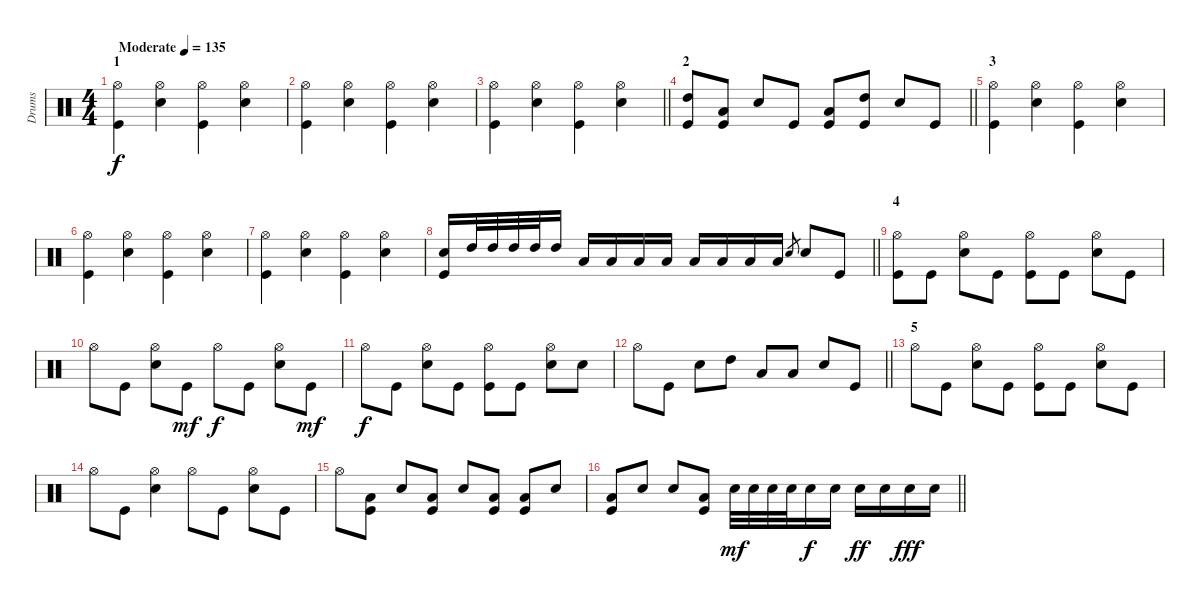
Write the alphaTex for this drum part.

\track ("Drums" "Drums") {instrument percussion}
\staff {score}
\articulation defaults
\ts (4 4)
\section ("" "1")
\tempo (135 "Moderate")
\clef neutral
\ks c
("Hi-Hat (open)" "Kick (hit)").4{dy f} ("Hi-Hat (open)" "Electric Snare (hit)").4 ("Hi-Hat (open)" "Kick (hit)").4 ("Hi-Hat (open)" "Electric Snare (hit)").4 |
("Hi-Hat (open)" "Kick (hit)").4 ("Hi-Hat (open)" "Electric Snare (hit)").4 ("Hi-Hat (open)" "Kick (hit)").4 ("Hi-Hat (open)" "Electric Snare (hit)").4 |
\barLineRight lightlight
("Hi-Hat (open)" "Kick (hit)").4 ("Hi-Hat (open)" "Electric Snare (hit)").4 ("Hi-Hat (open)" "Kick (hit)").4 ("Hi-Hat (open)" "Electric Snare (hit)").4 |
\section ("" "2")
\barLineRight lightlight
("High Tom (hit)" "Kick (hit)").8 ("Low Tom (hit)" "Kick (hit)").8 "Electric Snare (hit)".8 "Kick (hit)".8 ("Low Tom (hit)" "Kick (hit)").8 ("High Tom (hit)" "Kick (hit)").8 "Electric Snare (hit)".8 "Kick (hit)".8 |
\section ("" "3")
("Hi-Hat (open)" "Kick (hit)").4 ("Hi-Hat (open)" "Electric Snare (hit)").4 ("Hi-Hat (open)" "Kick (hit)").4 ("Hi-Hat (open)" "Electric Snare (hit)").4 |
("Hi-Hat (open)" "Kick (hit)").4 ("Hi-Hat (open)" "Electric Snare (hit)").4 ("Hi-Hat (open)" "Kick (hit)").4 ("Hi-Hat (open)" "Electric Snare (hit)").4 |
("Hi-Hat (open)" "Kick (hit)").4 ("Hi-Hat (open)" "Electric Snare (hit)").4 ("Hi-Hat (open)" "Kick (hit)").4 ("Hi-Hat (open)" "Electric Snare (hit)").4 |
\barLineRight lightlight
("Electric Snare (hit)" "Kick (hit)").16 "High Tom (hit)".32 "High Tom (hit)".32 "High Tom (hit)".32 "High Tom (hit)".32 "High Tom (hit)".16 "Low Tom (hit)".16 "Low Tom (hit)".16 "Low Tom (hit)".16 "Low Tom (hit)".16 "Low Floor Tom (hit)".16 "Low Floor Tom (hit)".16 "Low Floor Tom (hit)".16 "Low Floor Tom (hit)".16 "Electric Snare (hit)".8{gr} "Electric Snare (hit)".8 "Kick (hit)".8 |
\section ("" "4")
("Hi-Hat (open)" "Kick (hit)").8 "Kick (hit)".8 ("Hi-Hat (open)" "Electric Snare (hit)").8 "Kick (hit)".8 ("Hi-Hat (open)" "Kick (hit)").8 "Kick (hit)".8 ("Hi-Hat (open)" "Electric Snare (hit)").8 "Kick (hit)".8 |
"Hi-Hat (open)".8 "Kick (hit)".8 ("Hi-Hat (open)" "Electric Snare (hit)").8 "Kick (hit)".8{dy mf} "Hi-Hat (open)".8{dy f} "Kick (hit)".8 ("Hi-Hat (open)" "Electric Snare (hit)").8 "Kick (hit)".8{dy mf} |
"Hi-Hat (open)".8{dy f} "Kick (hit)".8 ("Hi-Hat (open)" "Electric Snare (hit)").8 "Kick (hit)".8 ("Hi-Hat (open)" "Kick (hit)").8 "Kick (hit)".8 ("Hi-Hat (open)" "Electric Snare (hit)").8 "Electric Snare (hit)".8 |
\barLineRight lightlight "Hi-Hat (open)".8 "Kick (hit)".8 "Electric Snare (hit)".8 "High Tom (hit)".8 "Low Tom (hit)".8 "Low Floor Tom (hit)".8 "Electric Snare (hit)".8 "Kick (hit)".8
|
\section ("" "5")
"Hi-Hat (open)".8 "Kick (hit)".8 ("Hi-Hat (open)" "Electric Snare (hit)").8 "Kick (hit)".8 ("Hi-Hat (open)" "Kick (hit)").8 "Kick (hit)".8 ("Hi-Hat (open)" "Electric Snare (hit)").8 "Kick (hit)".8 |
"Hi-Hat (open)".8 "Kick (hit)".8 ("Hi-Hat (open)" "Electric Snare (hit)").4 "Hi-Hat (open)".8 "Kick (hit)".8 ("Hi-Hat (open)" "Electric Snare (hit)").8 "Kick (hit)".8 |
"Hi-Hat (open)".8 ("Low Tom (hit)" "Kick (hit)").8 "Electric Snare (hit)".8 ("Low Tom (hit)" "Kick (hit)").8 "Electric Snare (hit)".8 ("Low Tom (hit)" "Kick (hit)").8 ("Low Tom (hit)" "Kick (hit)").8 "Electric Snare (hit)".8 |
\barLineRight lightlight
("Low Tom (hit)" "Kick (hit)").8 "Electric Snare (hit)".8 "Electric Snare (hit)".8 ("Low Tom (hit)" "Kick (hit)").8 "Electric Snare (hit)".32{dy mf} "Electric Snare (hit)".32 "Electric Snare (hit)".32 "Electric Snare (hit)".32 "Electric Snare (hit)".16{dy f} "Electric Snare (hit)".16 "Electric Snare (hit)".16{dy ff} "Electric Snare (hit)".16 "Electric Snare (hit)".16{dy fff} "Electric Snare (hit)".16
